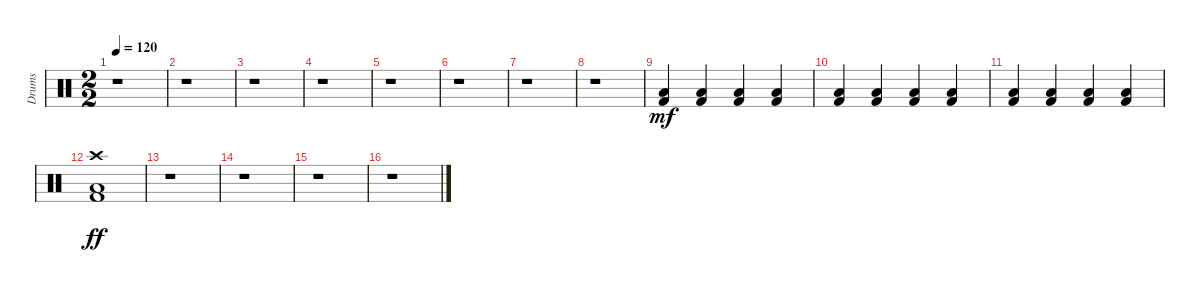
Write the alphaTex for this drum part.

\track ("Drums" "Drums") {instrument percussion}
\staff {score}
\articulation defaults
\ts (2 2)
\tempo 120
\clef neutral
\ks c
r.1{dy mf} |
r.1 |
r.1 |
r.1 |
r.1 |
r.1 |
r.1 |
r.1 |
("Kick (hit) 2" "Low Floor Tom (hit)").4 ("Kick (hit) 2" "Low Floor Tom (hit)").4 ("Kick (hit) 2" "Low Floor Tom (hit)").4 ("Kick (hit) 2" "Low Floor Tom (hit)").4 |
("Kick (hit) 2" "Low Floor Tom (hit)").4 ("Kick (hit) 2" "Low Floor Tom (hit)").4 ("Kick (hit) 2" "Low Floor Tom (hit)").4 ("Kick (hit) 2" "Low Floor Tom (hit)").4 |
("Kick (hit) 2" "Low Floor Tom (hit)").4 ("Kick (hit) 2" "Low Floor Tom (hit)").4 ("Kick (hit) 2" "Low Floor Tom (hit)").4 ("Kick (hit) 2" "Low Floor Tom (hit)").4 |
("Crash high (hit)" "Low Floor Tom (hit)" "Kick (hit) 2").1{dy ff} |
r.1 |
r.1 |
r.1 |
r.1
